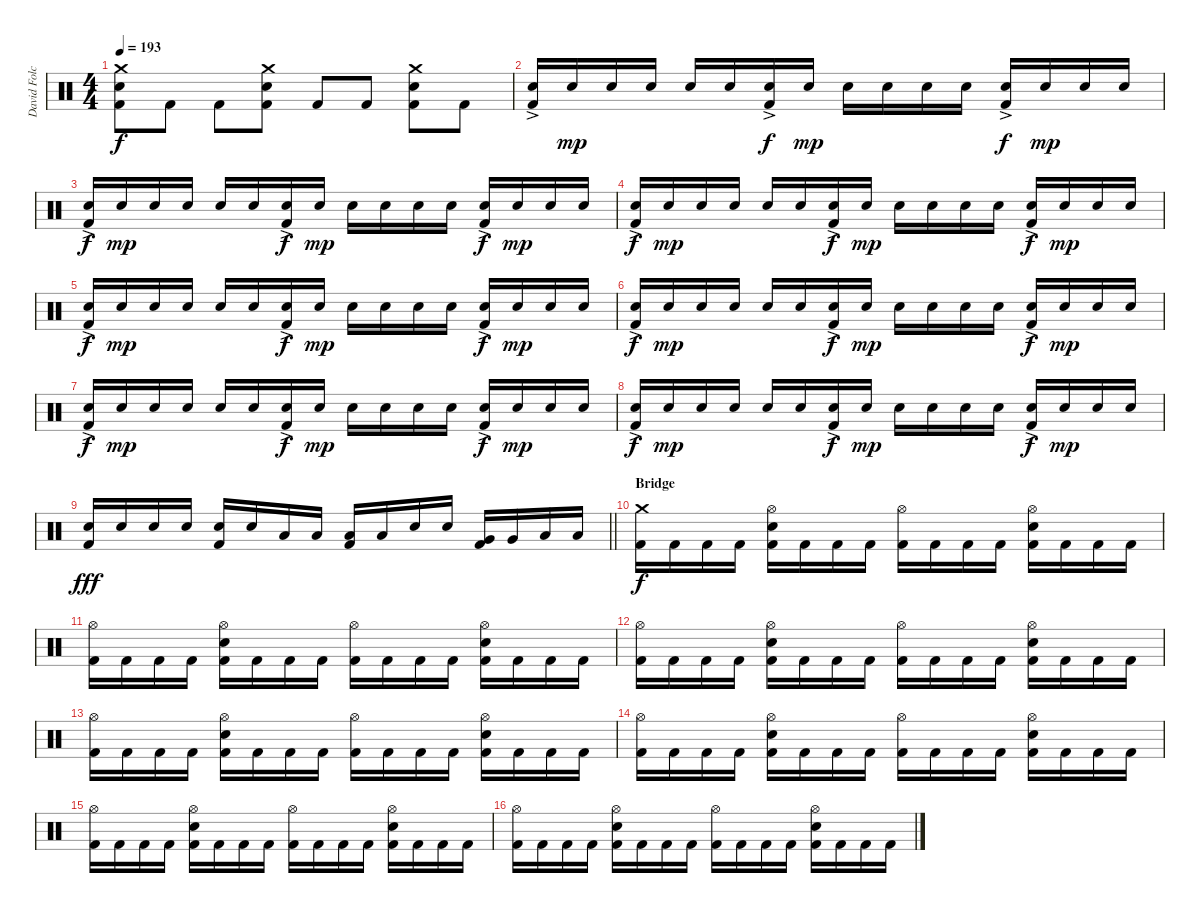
\track ("David Folchitto (Drums)" "David Folc") {instrument percussion}
\staff {score}
\articulation defaults
\ts (4 4)
\tempo 193
\clef neutral
\ks c
("Crash medium (hit)" "Snare (hit) 2" "Kick (hit) 2").8{dy f} "Kick (hit) 2".8 "Kick (hit) 2".8 ("Crash medium (hit)" "Snare (hit) 2" "Kick (hit) 2").8 "Kick (hit) 2".8 "Kick (hit) 2".8 ("Crash medium (hit)" "Snare (hit) 2" "Kick (hit) 2").8 "Kick (hit) 2".8 |
("Snare (hit) 2"{ac} "Kick (hit) 2").16 "Snare (hit) 2".16{dy mp} "Snare (hit) 2".16 "Snare (hit) 2".16 "Snare (hit) 2".16 "Snare (hit) 2".16 ("Snare (hit) 2"{ac} "Kick (hit) 2").16{dy f} "Snare (hit) 2".16{dy mp} "Snare (hit) 2".16 "Snare (hit) 2".16 "Snare (hit) 2".16 "Snare (hit) 2".16 ("Snare (hit) 2"{ac} "Kick (hit) 2").16{dy f} "Snare (hit) 2".16{dy mp} "Snare (hit) 2".16 "Snare (hit) 2".16 |
("Snare (hit) 2"{ac} "Kick (hit) 2").16{dy f} "Snare (hit) 2".16{dy mp} "Snare (hit) 2".16 "Snare (hit) 2".16 "Snare (hit) 2".16 "Snare (hit) 2".16 ("Snare (hit) 2"{ac} "Kick (hit) 2").16{dy f} "Snare (hit) 2".16{dy mp} "Snare (hit) 2".16 "Snare (hit) 2".16 "Snare (hit) 2".16 "Snare (hit) 2".16 ("Snare (hit) 2"{ac} "Kick (hit) 2").16{dy f} "Snare (hit) 2".16{dy mp} "Snare (hit) 2".16 "Snare (hit) 2".16 |
("Snare (hit) 2"{ac} "Kick (hit) 2").16{dy f} "Snare (hit) 2".16{dy mp} "Snare (hit) 2".16 "Snare (hit) 2".16 "Snare (hit) 2".16 "Snare (hit) 2".16 ("Snare (hit) 2"{ac} "Kick (hit) 2").16{dy f} "Snare (hit) 2".16{dy mp} "Snare (hit) 2".16 "Snare (hit) 2".16 "Snare (hit) 2".16 "Snare (hit) 2".16 ("Snare (hit) 2"{ac} "Kick (hit) 2").16{dy f} "Snare (hit) 2".16{dy mp} "Snare (hit) 2".16 "Snare (hit) 2".16 |
("Snare (hit) 2"{ac} "Kick (hit) 2").16{dy f} "Snare (hit) 2".16{dy mp} "Snare (hit) 2".16 "Snare (hit) 2".16 "Snare (hit) 2".16 "Snare (hit) 2".16 ("Snare (hit) 2"{ac} "Kick (hit) 2").16{dy f} "Snare (hit) 2".16{dy mp} "Snare (hit) 2".16 "Snare (hit) 2".16 "Snare (hit) 2".16 "Snare (hit) 2".16 ("Snare (hit) 2"{ac} "Kick (hit) 2").16{dy f} "Snare (hit) 2".16{dy mp} "Snare (hit) 2".16 "Snare (hit) 2".16 |
("Snare (hit) 2"{ac} "Kick (hit) 2").16{dy f} "Snare (hit) 2".16{dy mp} "Snare (hit) 2".16 "Snare (hit) 2".16 "Snare (hit) 2".16 "Snare (hit) 2".16 ("Snare (hit) 2"{ac} "Kick (hit) 2").16{dy f} "Snare (hit) 2".16{dy mp} "Snare (hit) 2".16 "Snare (hit) 2".16 "Snare (hit) 2".16 "Snare (hit) 2".16 ("Snare (hit) 2"{ac} "Kick (hit) 2").16{dy f} "Snare (hit) 2".16{dy mp} "Snare (hit) 2".16 "Snare (hit) 2".16 |
("Snare (hit) 2"{ac} "Kick (hit) 2").16{dy f} "Snare (hit) 2".16{dy mp} "Snare (hit) 2".16 "Snare (hit) 2".16 "Snare (hit) 2".16 "Snare (hit) 2".16 ("Snare (hit) 2"{ac} "Kick (hit) 2").16{dy f} "Snare (hit) 2".16{dy mp} "Snare (hit) 2".16 "Snare (hit) 2".16 "Snare (hit) 2".16 "Snare (hit) 2".16 ("Snare (hit) 2"{ac} "Kick (hit) 2").16{dy f} "Snare (hit) 2".16{dy mp} "Snare (hit) 2".16 "Snare (hit) 2".16 |
("Snare (hit) 2"{ac} "Kick (hit) 2").16{dy f} "Snare (hit) 2".16{dy mp} "Snare (hit) 2".16 "Snare (hit) 2".16 "Snare (hit) 2".16 "Snare (hit) 2".16 ("Snare (hit) 2"{ac} "Kick (hit) 2").16{dy f} "Snare (hit) 2".16{dy mp} "Snare (hit) 2".16 "Snare (hit) 2".16 "Snare (hit) 2".16 "Snare (hit) 2".16 ("Snare (hit) 2"{ac} "Kick (hit) 2").16{dy f} "Snare (hit) 2".16{dy mp} "Snare (hit) 2".16 "Snare (hit) 2".16 |
\barLineRight lightlight
("Snare (hit) 2" "Kick (hit) 2").16{dy fff} "Snare (hit) 2".16 "Snare (hit) 2".16 "Snare (hit) 2".16 ("Snare (hit) 2" "Kick (hit) 2").16 "Snare (hit) 2".16 "Low Tom (hit)".16 "Low Tom (hit)".16 ("Low Tom (hit)" "Kick (hit) 2").16 "Low Tom (hit)".16 "Snare (hit) 2".16 "Snare (hit) 2".16 ("Very Low Tom (hit)" "Kick (hit) 2").16 "Very Low Tom (hit)".16 "Low Floor Tom (hit)".16 "Low Floor Tom (hit)".16 |
\section ("" "Bridge")
("Crash medium (hit)" "Kick (hit) 2").16{dy f} "Kick (hit) 2".16 "Kick (hit) 2".16 "Kick (hit) 2".16 ("Hi-Hat (open)" "Snare (hit) 2" "Kick (hit) 2").16 "Kick (hit) 2".16 "Kick (hit) 2".16 "Kick (hit) 2".16 ("Hi-Hat (open)" "Kick (hit) 2").16 "Kick (hit) 2".16 "Kick (hit) 2".16 "Kick (hit) 2".16 ("Hi-Hat (open)" "Snare (hit) 2" "Kick (hit) 2").16 "Kick (hit) 2".16 "Kick (hit) 2".16 "Kick (hit) 2".16 |
("Hi-Hat (open)" "Kick (hit) 2").16 "Kick (hit) 2".16 "Kick (hit) 2".16 "Kick (hit) 2".16 ("Hi-Hat (open)" "Snare (hit) 2" "Kick (hit) 2").16 "Kick (hit) 2".16 "Kick (hit) 2".16 "Kick (hit) 2".16 ("Hi-Hat (open)" "Kick (hit) 2").16 "Kick (hit) 2".16 "Kick (hit) 2".16 "Kick (hit) 2".16 ("Hi-Hat (open)" "Snare (hit) 2" "Kick (hit) 2").16 "Kick (hit) 2".16 "Kick (hit) 2".16 "Kick (hit) 2".16 |
("Hi-Hat (open)" "Kick (hit) 2").16 "Kick (hit) 2".16 "Kick (hit) 2".16 "Kick (hit) 2".16 ("Hi-Hat (open)" "Snare (hit) 2" "Kick (hit) 2").16 "Kick (hit) 2".16 "Kick (hit) 2".16 "Kick (hit) 2".16 ("Hi-Hat (open)" "Kick (hit) 2").16 "Kick (hit) 2".16 "Kick (hit) 2".16 "Kick (hit) 2".16 ("Hi-Hat (open)" "Snare (hit) 2" "Kick (hit) 2").16 "Kick (hit) 2".16 "Kick (hit) 2".16 "Kick (hit) 2".16 |
("Hi-Hat (open)" "Kick (hit) 2").16 "Kick (hit) 2".16 "Kick (hit) 2".16 "Kick (hit) 2".16 ("Hi-Hat (open)" "Snare (hit) 2" "Kick (hit) 2").16 "Kick (hit) 2".16 "Kick (hit) 2".16 "Kick (hit) 2".16 ("Hi-Hat (open)" "Kick (hit) 2").16 "Kick (hit) 2".16 "Kick (hit) 2".16 "Kick (hit) 2".16 ("Hi-Hat (open)" "Snare (hit) 2" "Kick (hit) 2").16 "Kick (hit) 2".16 "Kick (hit) 2".16 "Kick (hit) 2".16 |
("Hi-Hat (open)" "Kick (hit) 2").16 "Kick (hit) 2".16 "Kick (hit) 2".16 "Kick (hit) 2".16 ("Hi-Hat (open)" "Snare (hit) 2" "Kick (hit) 2").16 "Kick (hit) 2".16 "Kick (hit) 2".16 "Kick (hit) 2".16 ("Hi-Hat (open)" "Kick (hit) 2").16 "Kick (hit) 2".16 "Kick (hit) 2".16 "Kick (hit) 2".16 ("Hi-Hat (open)" "Snare (hit) 2" "Kick (hit) 2").16 "Kick (hit) 2".16 "Kick (hit) 2".16 "Kick (hit) 2".16 |
("Hi-Hat (open)" "Kick (hit) 2").16 "Kick (hit) 2".16 "Kick (hit) 2".16 "Kick (hit) 2".16 ("Hi-Hat (open)" "Snare (hit) 2" "Kick (hit) 2").16 "Kick (hit) 2".16 "Kick (hit) 2".16 "Kick (hit) 2".16 ("Hi-Hat (open)" "Kick (hit) 2").16 "Kick (hit) 2".16 "Kick (hit) 2".16 "Kick (hit) 2".16 ("Hi-Hat (open)" "Snare (hit) 2" "Kick (hit) 2").16 "Kick (hit) 2".16 "Kick (hit) 2".16 "Kick (hit) 2".16 |
("Hi-Hat (open)" "Kick (hit) 2").16 "Kick (hit) 2".16 "Kick (hit) 2".16 "Kick (hit) 2".16 ("Hi-Hat (open)" "Snare (hit) 2" "Kick (hit) 2").16 "Kick (hit) 2".16 "Kick (hit) 2".16 "Kick (hit) 2".16 ("Hi-Hat (open)" "Kick (hit) 2").16 "Kick (hit) 2".16 "Kick (hit) 2".16 "Kick (hit) 2".16 ("Hi-Hat (open)" "Snare (hit) 2" "Kick (hit) 2").16 "Kick (hit) 2".16 "Kick (hit) 2".16 "Kick (hit) 2".16
